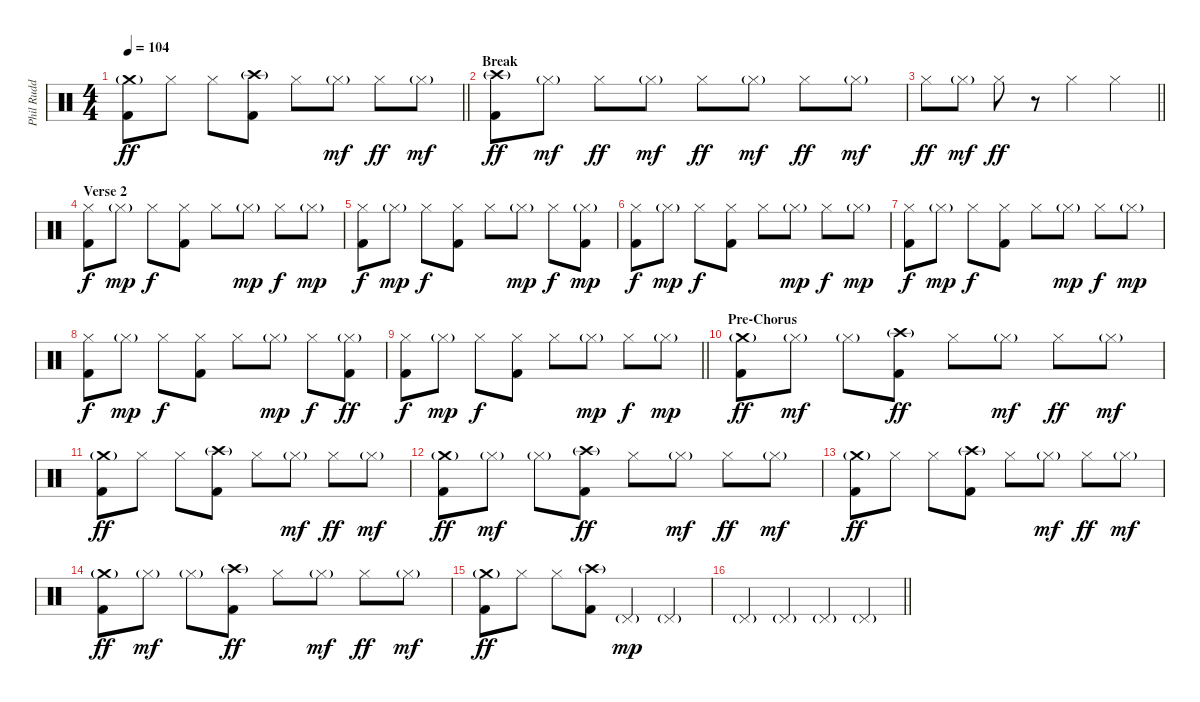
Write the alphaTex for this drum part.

\track ("Phil Rudd" "Phil Rudd") {instrument percussion}
\staff {score}
\articulation defaults
\ts (4 4)
\tempo 104
\clef neutral
\barLineRight lightlight
\ks c
("Crash medium (hit)"{g} "Kick (hit) 2").8{dy ff} "Hi-Hat (closed)".8 "Hi-Hat (closed)".8 ("Crash high (hit)"{g} "Kick (hit) 2").8 "Hi-Hat (closed)".8 "Hi-Hat (closed)"{g}.8{dy mf} "Hi-Hat (closed)".8{dy ff} "Hi-Hat (closed)"{g}.8{dy mf} |
\section ("" "Break")
("Crash high (hit)"{g} "Kick (hit) 2").8{dy ff} "Hi-Hat (closed)"{g}.8{dy mf} "Hi-Hat (closed)".8{dy ff} "Hi-Hat (closed)"{g}.8{dy mf} "Hi-Hat (closed)".8{dy ff} "Hi-Hat (closed)"{g}.8{dy mf} "Hi-Hat (closed)".8{dy ff} "Hi-Hat (closed)"{g}.8{dy mf} |
\barLineRight lightlight "Hi-Hat (closed)".8{dy ff} "Hi-Hat (closed)"{g}.8{dy mf} "Hi-Hat (closed)".8{dy ff}
r.8 "Hi-Hat (closed)".4 "Hi-Hat (closed)".4 |
\section ("" "Verse 2")
("Hi-Hat (closed)" "Kick (hit) 2").8{dy f} "Hi-Hat (closed)"{g}.8{dy mp} "Hi-Hat (closed)".8{dy f} ("Hi-Hat (closed)" "Kick (hit) 2").8 "Hi-Hat (closed)".8 "Hi-Hat (closed)"{g}.8{dy mp} "Hi-Hat (closed)".8{dy f} "Hi-Hat (closed)"{g}.8{dy mp} |
("Hi-Hat (closed)" "Kick (hit) 2").8{dy f} "Hi-Hat (closed)"{g}.8{dy mp} "Hi-Hat (closed)".8{dy f} ("Hi-Hat (closed)" "Kick (hit) 2").8 "Hi-Hat (closed)".8 "Hi-Hat (closed)"{g}.8{dy mp} "Hi-Hat (closed)".8{dy f} ("Hi-Hat (closed)"{g} "Kick (hit) 2").8{dy mp} |
("Hi-Hat (closed)" "Kick (hit) 2").8{dy f} "Hi-Hat (closed)"{g}.8{dy mp} "Hi-Hat (closed)".8{dy f} ("Hi-Hat (closed)" "Kick (hit) 2").8 "Hi-Hat (closed)".8 "Hi-Hat (closed)"{g}.8{dy mp} "Hi-Hat (closed)".8{dy f} "Hi-Hat (closed)"{g}.8{dy mp} |
("Hi-Hat (closed)" "Kick (hit) 2").8{dy f} "Hi-Hat (closed)"{g}.8{dy mp} "Hi-Hat (closed)".8{dy f} ("Hi-Hat (closed)" "Kick (hit) 2").8 "Hi-Hat (closed)".8 "Hi-Hat (closed)"{g}.8{dy mp} "Hi-Hat (closed)".8{dy f} "Hi-Hat (closed)"{g}.8{dy mp} |
("Hi-Hat (closed)" "Kick (hit) 2").8{dy f} "Hi-Hat (closed)"{g}.8{dy mp} "Hi-Hat (closed)".8{dy f} ("Hi-Hat (closed)" "Kick (hit) 2").8 "Hi-Hat (closed)".8 "Hi-Hat (closed)"{g}.8{dy mp} "Hi-Hat (closed)".8{dy f} ("Hi-Hat (closed)"{g} "Kick (hit) 2").8{dy ff} |
\barLineRight lightlight
("Hi-Hat (closed)" "Kick (hit) 2").8{dy f} "Hi-Hat (closed)"{g}.8{dy mp} "Hi-Hat (closed)".8{dy f} ("Hi-Hat (closed)" "Kick (hit) 2").8 "Hi-Hat (closed)".8 "Hi-Hat (closed)"{g}.8{dy mp} "Hi-Hat (closed)".8{dy f} "Hi-Hat (closed)"{g}.8{dy mp} |
\section ("" "Pre-Chorus")
("Crash medium (hit)"{g} "Kick (hit) 2").8{dy ff} "Hi-Hat (closed)"{g}.8{dy mf} "Hi-Hat (closed)"{g}.8 ("Crash high (hit)"{g} "Kick (hit) 2").8{dy ff} "Hi-Hat (closed)".8 "Hi-Hat (closed)"{g}.8{dy mf} "Hi-Hat (closed)".8{dy ff} "Hi-Hat (closed)"{g}.8{dy mf} |
("Crash medium (hit)"{g} "Kick (hit) 2").8{dy ff} "Hi-Hat (closed)".8 "Hi-Hat (closed)".8 ("Crash high (hit)"{g} "Kick (hit) 2").8 "Hi-Hat (closed)".8 "Hi-Hat (closed)"{g}.8{dy mf} "Hi-Hat (closed)".8{dy ff} "Hi-Hat (closed)"{g}.8{dy mf} |
("Crash medium (hit)"{g} "Kick (hit) 2").8{dy ff} "Hi-Hat (closed)"{g}.8{dy mf} "Hi-Hat (closed)"{g}.8 ("Crash high (hit)"{g} "Kick (hit) 2").8{dy ff} "Hi-Hat (closed)".8 "Hi-Hat (closed)"{g}.8{dy mf} "Hi-Hat (closed)".8{dy ff} "Hi-Hat (closed)"{g}.8{dy mf} |
("Crash medium (hit)"{g} "Kick (hit) 2").8{dy ff} "Hi-Hat (closed)".8 "Hi-Hat (closed)".8 ("Crash high (hit)"{g} "Kick (hit) 2").8 "Hi-Hat (closed)".8 "Hi-Hat (closed)"{g}.8{dy mf} "Hi-Hat (closed)".8{dy ff} "Hi-Hat (closed)"{g}.8{dy mf} |
("Crash medium (hit)"{g} "Kick (hit) 2").8{dy ff} "Hi-Hat (closed)"{g}.8{dy mf} "Hi-Hat (closed)"{g}.8 ("Crash high (hit)"{g} "Kick (hit) 2").8{dy ff} "Hi-Hat (closed)".8 "Hi-Hat (closed)"{g}.8{dy mf} "Hi-Hat (closed)".8{dy ff} "Hi-Hat (closed)"{g}.8{dy mf} |
("Crash medium (hit)"{g} "Kick (hit) 2").8{dy ff} "Hi-Hat (closed)".8 "Hi-Hat (closed)".8 ("Crash high (hit)"{g} "Kick (hit) 2").8 "Pedal Hi-Hat (hit)"{g}.4{dy mp} "Pedal Hi-Hat (hit)"{g}.4 |
\barLineRight lightlight "Pedal Hi-Hat (hit)"{g}.4 "Pedal Hi-Hat (hit)"{g}.4 "Pedal Hi-Hat (hit)"{g}.4 "Pedal Hi-Hat (hit)"{g}.4
